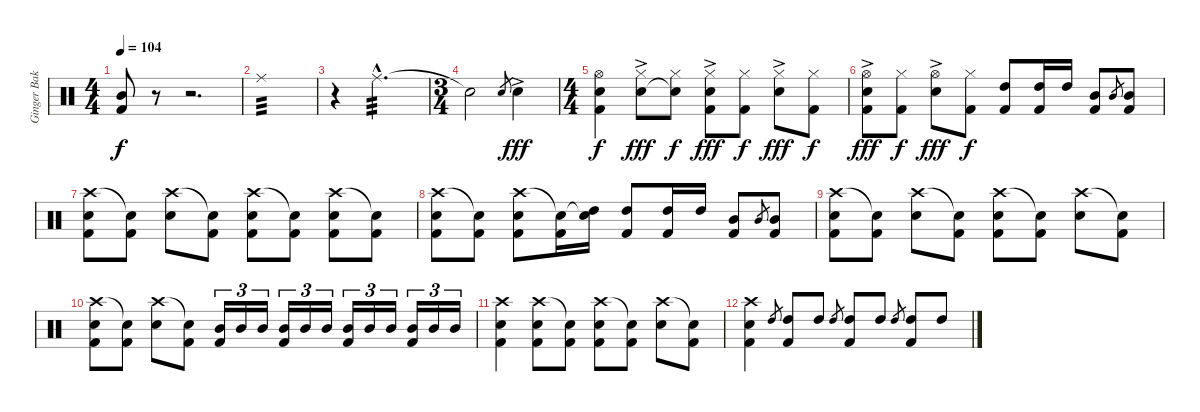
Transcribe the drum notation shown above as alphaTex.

\track ("Ginger Baker" "Ginger Bak") {instrument percussion}
\staff {score}
\articulation defaults
\ts (4 4)
\tempo 104
\clef neutral
\ks c
("Mid Tom (hit)" "Kick (hit) 2").8{dy f} r.8 r.2{d} |
"Ride (middle)".1{tp 3} |
r.4 "Ride (middle)"{hac}.2{d tp 3} |
\ts (3 4)
"Snare (hit)"{t}.2 "Electric Snare (hit)".8{gr} "Electric Snare (hit)"{ac}.4{dy fff} |
\ts (4 4)
("Hi-Hat (open)" "Electric Snare (hit)" "Kick (hit) 2").4{dy f} ("Hi-Hat (closed)"{ac} "Electric Snare (hit)").8{dy fff} ("Hi-Hat (closed)" "Snare (hit)"{t}).8{dy f} ("Hi-Hat (closed)"{ac} "Electric Snare (hit)" "Kick (hit) 2").8{dy fff} ("Hi-Hat (closed)" "Kick (hit) 2").8{dy f} ("Hi-Hat (closed)"{ac} "Electric Snare (hit)").8{dy fff} ("Hi-Hat (closed)" "Kick (hit) 2").8{dy f} |
("Hi-Hat (open)"{ac} "Electric Snare (hit)" "Kick (hit) 2").8{dy fff} ("Hi-Hat (closed)" "Kick (hit) 2").8{dy f} ("Hi-Hat (open)"{ac} "Electric Snare (hit)").8{dy fff} ("Hi-Hat (closed)" "Kick (hit) 2").8{dy f} ("High Tom (hit)" "Kick (hit) 2").8 ("High Tom (hit)" "Kick (hit) 2").16 "High Tom (hit)".16 ("Mid Tom (hit)" "Kick (hit) 2").8 "Mid Tom (hit)".8{gr} ("Mid Tom (hit)" "Kick (hit) 2").8 |
("Crash high (hit)" "Electric Snare (hit)" "Kick (hit) 2").8 ("Snare (hit)"{t} "Kick (hit) 2").8 ("Crash high (hit)" "Electric Snare (hit)").8 ("Snare (hit)"{t} "Kick (hit) 2").8 ("Crash high (hit)" "Electric Snare (hit)" "Kick (hit) 2").8 ("Snare (hit)"{t} "Kick (hit) 2").8 ("Crash high (hit)" "Electric Snare (hit)" "Kick (hit) 2").8 ("Snare (hit)"{t} "Kick (hit) 2").8 |
("Crash high (hit)" "Electric Snare (hit)" "Kick (hit) 2").8 ("Snare (hit)"{t} "Kick (hit) 2").8 ("Crash high (hit)" "Electric Snare (hit)" "Kick (hit) 2").8 ("Snare (hit)"{t} "Kick (hit) 2").16 ("Snare (hit)"{t} "High Tom (hit)").16 ("High Tom (hit)" "Kick (hit) 2").8 ("High Tom (hit)" "Kick (hit) 2").16 "High Tom (hit)".16 ("Mid Tom (hit)" "Kick (hit) 2").8 "Mid Tom (hit)".8{gr} ("Mid Tom (hit)" "Kick (hit) 2").8 |
("Crash high (hit)" "Electric Snare (hit)" "Kick (hit) 2").8 ("Snare (hit)"{t} "Kick (hit) 2").8 ("Crash high (hit)" "Electric Snare (hit)").8 ("Snare (hit)"{t} "Kick (hit) 2").8 ("Crash high (hit)" "Electric Snare (hit)" "Kick (hit) 2").8 ("Snare (hit)"{t} "Kick (hit) 2").8 ("Crash high (hit)" "Electric Snare (hit)").8 ("Snare (hit)"{t} "Kick (hit) 2").8 |
("Crash high (hit)" "Electric Snare (hit)" "Kick (hit) 2").8 ("Snare (hit)"{t} "Kick (hit) 2").8 ("Crash high (hit)" "Electric Snare (hit)").8 ("Snare (hit)"{t} "Kick (hit) 2").8 ("Mid Tom (hit)" "Kick (hit) 2").16{tu (3 2)} "Mid Tom (hit)".16{tu (3 2)} "Mid Tom (hit)".16{tu (3 2)} ("Mid Tom (hit)" "Kick (hit) 2").16{tu (3 2)} "Mid Tom (hit)".16{tu (3 2)} "Mid Tom (hit)".16{tu (3 2)} ("Mid Tom (hit)" "Kick (hit) 2").16{tu (3 2)} "Mid Tom (hit)".16{tu (3 2)} "Mid Tom (hit)".16{tu (3 2)} ("Mid Tom (hit)" "Kick (hit) 2").16{tu (3 2)} "Mid Tom (hit)".16{tu (3 2)} "Mid Tom (hit)".16{tu (3 2)} |
("Crash high (hit)" "Electric Snare (hit)" "Kick (hit) 2").4 ("Crash high (hit)" "Electric Snare (hit)" "Kick (hit) 2").8 ("Snare (hit)"{t} "Kick (hit) 2").8 ("Crash high (hit)" "Electric Snare (hit)" "Kick (hit) 2").8 ("Snare (hit)"{t} "Kick (hit) 2").8 ("Crash high (hit)" "Electric Snare (hit)").8 ("Snare (hit)"{t} "Kick (hit) 2").8 |
("Crash high (hit)" "Electric Snare (hit)" "Kick (hit) 2").4 "High Tom (hit)".8{gr} ("High Tom (hit)" "Kick (hit) 2").8 "High Tom (hit)".8 "High Tom (hit)".8{gr} ("High Tom (hit)" "Kick (hit) 2").8 "High Tom (hit)".8 "High Tom (hit)".8{gr} ("High Tom (hit)" "Kick (hit) 2").8 "High Tom (hit)".8
